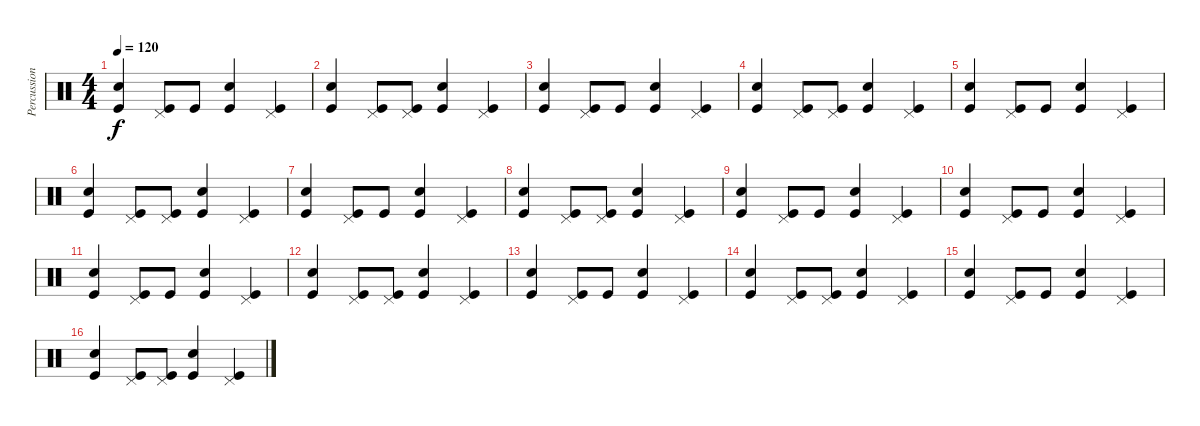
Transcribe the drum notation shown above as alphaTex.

\track ("Percussion" "Percussion") {instrument percussion}
\staff {score}
\articulation defaults
\ts (4 4)
\tempo 120
\clef neutral
\ks c
("Snare (hit) 2" "Kick (hit)").4{dy f} ("Pedal Hi-Hat (hit)" "Kick (hit)").8 "Kick (hit)".8 ("Snare (hit) 2" "Kick (hit)").4 ("Pedal Hi-Hat (hit)" "Kick (hit)").4 |
("Snare (hit) 2" "Kick (hit)").4 ("Pedal Hi-Hat (hit)" "Kick (hit)").8 ("Pedal Hi-Hat (hit)" "Kick (hit)").8 ("Snare (hit) 2" "Kick (hit)").4 ("Pedal Hi-Hat (hit)" "Kick (hit)").4 |
("Snare (hit) 2" "Kick (hit)").4 ("Pedal Hi-Hat (hit)" "Kick (hit)").8 "Kick (hit)".8 ("Snare (hit) 2" "Kick (hit)").4 ("Pedal Hi-Hat (hit)" "Kick (hit)").4 |
("Snare (hit) 2" "Kick (hit)").4 ("Pedal Hi-Hat (hit)" "Kick (hit)").8 ("Pedal Hi-Hat (hit)" "Kick (hit)").8 ("Snare (hit) 2" "Kick (hit)").4 ("Pedal Hi-Hat (hit)" "Kick (hit)").4 |
("Snare (hit) 2" "Kick (hit)").4 ("Pedal Hi-Hat (hit)" "Kick (hit)").8 "Kick (hit)".8 ("Snare (hit) 2" "Kick (hit)").4 ("Pedal Hi-Hat (hit)" "Kick (hit)").4 |
("Snare (hit) 2" "Kick (hit)").4 ("Pedal Hi-Hat (hit)" "Kick (hit)").8 ("Pedal Hi-Hat (hit)" "Kick (hit)").8 ("Snare (hit) 2" "Kick (hit)").4 ("Pedal Hi-Hat (hit)" "Kick (hit)").4 |
("Snare (hit) 2" "Kick (hit)").4 ("Pedal Hi-Hat (hit)" "Kick (hit)").8 "Kick (hit)".8 ("Snare (hit) 2" "Kick (hit)").4 ("Pedal Hi-Hat (hit)" "Kick (hit)").4 |
("Snare (hit) 2" "Kick (hit)").4 ("Pedal Hi-Hat (hit)" "Kick (hit)").8 ("Pedal Hi-Hat (hit)" "Kick (hit)").8 ("Snare (hit) 2" "Kick (hit)").4 ("Pedal Hi-Hat (hit)" "Kick (hit)").4 |
("Snare (hit) 2" "Kick (hit)").4 ("Pedal Hi-Hat (hit)" "Kick (hit)").8 "Kick (hit)".8 ("Snare (hit) 2" "Kick (hit)").4 ("Pedal Hi-Hat (hit)" "Kick (hit)").4 |
("Snare (hit) 2" "Kick (hit)").4 ("Pedal Hi-Hat (hit)" "Kick (hit)").8 "Kick (hit)".8 ("Snare (hit) 2" "Kick (hit)").4 ("Pedal Hi-Hat (hit)" "Kick (hit)").4 |
("Snare (hit) 2" "Kick (hit)").4 ("Pedal Hi-Hat (hit)" "Kick (hit)").8 "Kick (hit)".8 ("Snare (hit) 2" "Kick (hit)").4 ("Pedal Hi-Hat (hit)" "Kick (hit)").4 |
("Snare (hit) 2" "Kick (hit)").4 ("Pedal Hi-Hat (hit)" "Kick (hit)").8 ("Pedal Hi-Hat (hit)" "Kick (hit)").8 ("Snare (hit) 2" "Kick (hit)").4 ("Pedal Hi-Hat (hit)" "Kick (hit)").4 |
("Snare (hit) 2" "Kick (hit)").4 ("Pedal Hi-Hat (hit)" "Kick (hit)").8 "Kick (hit)".8 ("Snare (hit) 2" "Kick (hit)").4 ("Pedal Hi-Hat (hit)" "Kick (hit)").4 |
("Snare (hit) 2" "Kick (hit)").4 ("Pedal Hi-Hat (hit)" "Kick (hit)").8 ("Pedal Hi-Hat (hit)" "Kick (hit)").8 ("Snare (hit) 2" "Kick (hit)").4 ("Pedal Hi-Hat (hit)" "Kick (hit)").4 |
("Snare (hit) 2" "Kick (hit)").4 ("Pedal Hi-Hat (hit)" "Kick (hit)").8 "Kick (hit)".8 ("Snare (hit) 2" "Kick (hit)").4 ("Pedal Hi-Hat (hit)" "Kick (hit)").4 |
("Snare (hit) 2" "Kick (hit)").4 ("Pedal Hi-Hat (hit)" "Kick (hit)").8 ("Pedal Hi-Hat (hit)" "Kick (hit)").8 ("Snare (hit) 2" "Kick (hit)").4 ("Pedal Hi-Hat (hit)" "Kick (hit)").4
